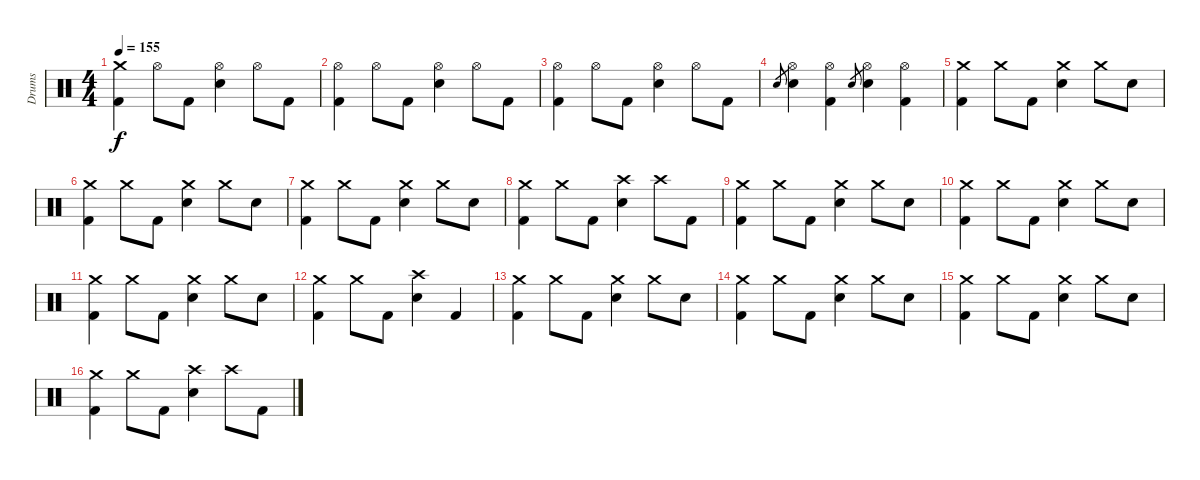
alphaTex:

\track ("Drums" "Drums") {instrument percussion}
\staff {score}
\articulation defaults
\ts (4 4)
\tempo 155
\clef neutral
\ks c
("Crash medium (hit)" "Kick (hit) 2").4{dy f} "Hi-Hat (open)".8 "Kick (hit) 2".8 ("Hi-Hat (open)" "Electric Snare (hit)").4 "Hi-Hat (open)".8 "Kick (hit) 2".8 |
("Hi-Hat (open)" "Kick (hit) 2").4 "Hi-Hat (open)".8 "Kick (hit) 2".8 ("Hi-Hat (open)" "Electric Snare (hit)").4 "Hi-Hat (open)".8 "Kick (hit) 2".8 |
("Hi-Hat (open)" "Kick (hit) 2").4 "Hi-Hat (open)".8 "Kick (hit) 2".8 ("Hi-Hat (open)" "Electric Snare (hit)").4 "Hi-Hat (open)".8 "Kick (hit) 2".8 |
"Electric Snare (hit)".8{gr} ("Hi-Hat (open)" "Electric Snare (hit)").4 ("Hi-Hat (open)" "Kick (hit) 2").4 "Electric Snare (hit)".8{gr} ("Hi-Hat (open)" "Electric Snare (hit)").4 ("Hi-Hat (open)" "Kick (hit) 2").4 |
("Crash medium (hit)" "Kick (hit) 2").4 "Crash medium (hit)".8 "Kick (hit) 2".8 ("Crash medium (hit)" "Electric Snare (hit)").4 "Crash medium (hit)".8 "Electric Snare (hit)".8 |
("Crash medium (hit)" "Kick (hit) 2").4 "Crash medium (hit)".8 "Kick (hit) 2".8 ("Crash medium (hit)" "Electric Snare (hit)").4 "Crash medium (hit)".8 "Electric Snare (hit)".8 |
("Crash medium (hit)" "Kick (hit) 2").4 "Crash medium (hit)".8 "Kick (hit) 2".8 ("Crash medium (hit)" "Electric Snare (hit)").4 "Crash medium (hit)".8 "Electric Snare (hit)".8 |
("Crash medium (hit)" "Kick (hit) 2").4 "Crash medium (hit)".8 "Kick (hit) 2".8 ("Crash high (hit)" "Electric Snare (hit)").4 "Crash high (hit)".8 "Kick (hit) 2".8 |
("Crash medium (hit)" "Kick (hit) 2").4 "Crash medium (hit)".8 "Kick (hit) 2".8 ("Crash medium (hit)" "Electric Snare (hit)").4 "Crash medium (hit)".8 "Electric Snare (hit)".8 |
("Crash medium (hit)" "Kick (hit) 2").4 "Crash medium (hit)".8 "Kick (hit) 2".8 ("Crash medium (hit)" "Electric Snare (hit)").4 "Crash medium (hit)".8 "Electric Snare (hit)".8 |
("Crash medium (hit)" "Kick (hit) 2").4 "Crash medium (hit)".8 "Kick (hit) 2".8 ("Crash medium (hit)" "Electric Snare (hit)").4 "Crash medium (hit)".8 "Electric Snare (hit)".8 |
("Crash medium (hit)" "Kick (hit) 2").4 "Crash medium (hit)".8 "Kick (hit) 2".8 ("Crash high (hit)" "Electric Snare (hit)").4 "Kick (hit) 2".4 |
("Crash medium (hit)" "Kick (hit) 2").4 "Crash medium (hit)".8 "Kick (hit) 2".8 ("Crash medium (hit)" "Electric Snare (hit)").4 "Crash medium (hit)".8 "Electric Snare (hit)".8 |
("Crash medium (hit)" "Kick (hit) 2").4 "Crash medium (hit)".8 "Kick (hit) 2".8 ("Crash medium (hit)" "Electric Snare (hit)").4 "Crash medium (hit)".8 "Electric Snare (hit)".8 |
("Crash medium (hit)" "Kick (hit) 2").4 "Crash medium (hit)".8 "Kick (hit) 2".8 ("Crash medium (hit)" "Electric Snare (hit)").4 "Crash medium (hit)".8 "Electric Snare (hit)".8 |
("Crash medium (hit)" "Kick (hit) 2").4 "Crash medium (hit)".8 "Kick (hit) 2".8 ("Crash high (hit)" "Electric Snare (hit)").4 "Crash high (hit)".8 "Kick (hit) 2".8
